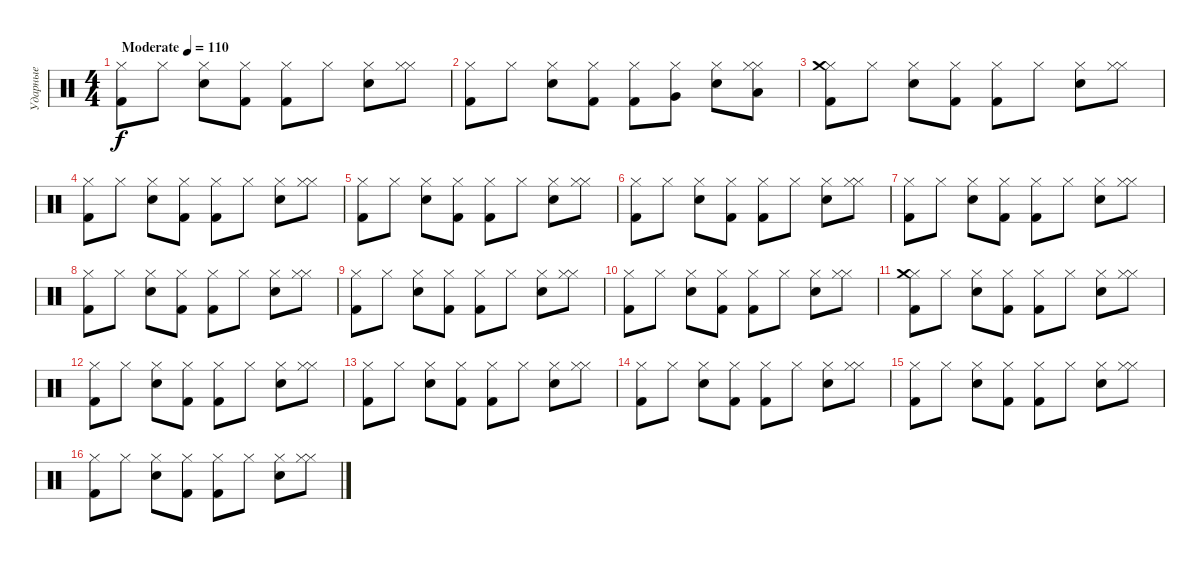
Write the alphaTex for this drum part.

\track ("Ударные" "Ударные") {instrument percussion}
\staff {score}
\articulation defaults
\ts (4 4)
\tempo (110 "Moderate")
\clef neutral
\ks c
("Kick (hit) 2" "Hi-Hat (closed)").8{dy f} "Hi-Hat (closed)".8 ("Electric Snare (hit)" "Hi-Hat (closed)").8 ("Kick (hit) 2" "Hi-Hat (closed)").8 ("Kick (hit) 2" "Hi-Hat (closed)").8 "Hi-Hat (closed)".8 ("Electric Snare (hit)" "Hi-Hat (closed)").8 ("Hi-Hat (closed)" "Hi-Hat (closed)").8 |
("Kick (hit) 2" "Hi-Hat (closed)").8 "Hi-Hat (closed)".8 ("Electric Snare (hit)" "Hi-Hat (closed)").8 ("Kick (hit) 2" "Hi-Hat (closed)").8 ("Kick (hit) 2" "Hi-Hat (closed)").8 ("Hi-Hat (closed)" "Very Low Tom (hit)").8 ("Electric Snare (hit)" "Hi-Hat (closed)").8 ("Hi-Hat (closed)" "Hi-Hat (closed)" "Low Tom (hit)").8 |
("Kick (hit) 2" "Hi-Hat (closed)" "Crash medium (hit)").8 "Hi-Hat (closed)".8 ("Electric Snare (hit)" "Hi-Hat (closed)").8 ("Kick (hit) 2" "Hi-Hat (closed)").8 ("Kick (hit) 2" "Hi-Hat (closed)").8 "Hi-Hat (closed)".8 ("Electric Snare (hit)" "Hi-Hat (closed)").8 ("Hi-Hat (closed)" "Hi-Hat (closed)").8 |
("Kick (hit) 2" "Hi-Hat (closed)").8 "Hi-Hat (closed)".8 ("Electric Snare (hit)" "Hi-Hat (closed)").8 ("Kick (hit) 2" "Hi-Hat (closed)").8 ("Kick (hit) 2" "Hi-Hat (closed)").8 "Hi-Hat (closed)".8 ("Electric Snare (hit)" "Hi-Hat (closed)").8 ("Hi-Hat (closed)" "Hi-Hat (closed)").8 |
("Kick (hit) 2" "Hi-Hat (closed)").8 "Hi-Hat (closed)".8 ("Electric Snare (hit)" "Hi-Hat (closed)").8 ("Kick (hit) 2" "Hi-Hat (closed)").8 ("Kick (hit) 2" "Hi-Hat (closed)").8 "Hi-Hat (closed)".8 ("Electric Snare (hit)" "Hi-Hat (closed)").8 ("Hi-Hat (closed)" "Hi-Hat (closed)").8 |
("Kick (hit) 2" "Hi-Hat (closed)").8 "Hi-Hat (closed)".8 ("Electric Snare (hit)" "Hi-Hat (closed)").8 ("Kick (hit) 2" "Hi-Hat (closed)").8 ("Kick (hit) 2" "Hi-Hat (closed)").8 "Hi-Hat (closed)".8 ("Electric Snare (hit)" "Hi-Hat (closed)").8 ("Hi-Hat (closed)" "Hi-Hat (closed)").8 |
("Kick (hit) 2" "Hi-Hat (closed)").8 "Hi-Hat (closed)".8 ("Electric Snare (hit)" "Hi-Hat (closed)").8 ("Kick (hit) 2" "Hi-Hat (closed)").8 ("Kick (hit) 2" "Hi-Hat (closed)").8 "Hi-Hat (closed)".8 ("Electric Snare (hit)" "Hi-Hat (closed)").8 ("Hi-Hat (closed)" "Hi-Hat (closed)").8 |
("Kick (hit) 2" "Hi-Hat (closed)").8 "Hi-Hat (closed)".8 ("Electric Snare (hit)" "Hi-Hat (closed)").8 ("Kick (hit) 2" "Hi-Hat (closed)").8 ("Kick (hit) 2" "Hi-Hat (closed)").8 "Hi-Hat (closed)".8 ("Electric Snare (hit)" "Hi-Hat (closed)").8 ("Hi-Hat (closed)" "Hi-Hat (closed)").8 |
("Kick (hit) 2" "Hi-Hat (closed)").8 "Hi-Hat (closed)".8 ("Electric Snare (hit)" "Hi-Hat (closed)").8 ("Kick (hit) 2" "Hi-Hat (closed)").8 ("Kick (hit) 2" "Hi-Hat (closed)").8 "Hi-Hat (closed)".8 ("Electric Snare (hit)" "Hi-Hat (closed)").8 ("Hi-Hat (closed)" "Hi-Hat (closed)").8 |
("Kick (hit) 2" "Hi-Hat (closed)").8 "Hi-Hat (closed)".8 ("Electric Snare (hit)" "Hi-Hat (closed)").8 ("Kick (hit) 2" "Hi-Hat (closed)").8 ("Kick (hit) 2" "Hi-Hat (closed)").8 "Hi-Hat (closed)".8 ("Electric Snare (hit)" "Hi-Hat (closed)").8 ("Hi-Hat (closed)" "Hi-Hat (closed)").8 |
("Kick (hit) 2" "Hi-Hat (closed)" "Crash medium (hit)").8 "Hi-Hat (closed)".8 ("Electric Snare (hit)" "Hi-Hat (closed)").8 ("Kick (hit) 2" "Hi-Hat (closed)").8 ("Kick (hit) 2" "Hi-Hat (closed)").8 "Hi-Hat (closed)".8 ("Electric Snare (hit)" "Hi-Hat (closed)").8 ("Hi-Hat (closed)" "Hi-Hat (closed)").8 |
("Kick (hit) 2" "Hi-Hat (closed)").8 "Hi-Hat (closed)".8 ("Electric Snare (hit)" "Hi-Hat (closed)").8 ("Kick (hit) 2" "Hi-Hat (closed)").8 ("Kick (hit) 2" "Hi-Hat (closed)").8 "Hi-Hat (closed)".8 ("Electric Snare (hit)" "Hi-Hat (closed)").8 ("Hi-Hat (closed)" "Hi-Hat (closed)").8 |
("Kick (hit) 2" "Hi-Hat (closed)").8 "Hi-Hat (closed)".8 ("Electric Snare (hit)" "Hi-Hat (closed)").8 ("Kick (hit) 2" "Hi-Hat (closed)").8 ("Kick (hit) 2" "Hi-Hat (closed)").8 "Hi-Hat (closed)".8 ("Electric Snare (hit)" "Hi-Hat (closed)").8 ("Hi-Hat (closed)" "Hi-Hat (closed)").8 |
("Kick (hit) 2" "Hi-Hat (closed)").8 "Hi-Hat (closed)".8 ("Electric Snare (hit)" "Hi-Hat (closed)").8 ("Kick (hit) 2" "Hi-Hat (closed)").8 ("Kick (hit) 2" "Hi-Hat (closed)").8 "Hi-Hat (closed)".8 ("Electric Snare (hit)" "Hi-Hat (closed)").8 ("Hi-Hat (closed)" "Hi-Hat (closed)").8 |
("Kick (hit) 2" "Hi-Hat (closed)").8 "Hi-Hat (closed)".8 ("Electric Snare (hit)" "Hi-Hat (closed)").8 ("Kick (hit) 2" "Hi-Hat (closed)").8 ("Kick (hit) 2" "Hi-Hat (closed)").8 "Hi-Hat (closed)".8 ("Electric Snare (hit)" "Hi-Hat (closed)").8 ("Hi-Hat (closed)" "Hi-Hat (closed)").8 |
("Kick (hit) 2" "Hi-Hat (closed)").8 "Hi-Hat (closed)".8 ("Electric Snare (hit)" "Hi-Hat (closed)").8 ("Kick (hit) 2" "Hi-Hat (closed)").8 ("Kick (hit) 2" "Hi-Hat (closed)").8 "Hi-Hat (closed)".8 ("Electric Snare (hit)" "Hi-Hat (closed)").8 ("Hi-Hat (closed)" "Hi-Hat (closed)").8
